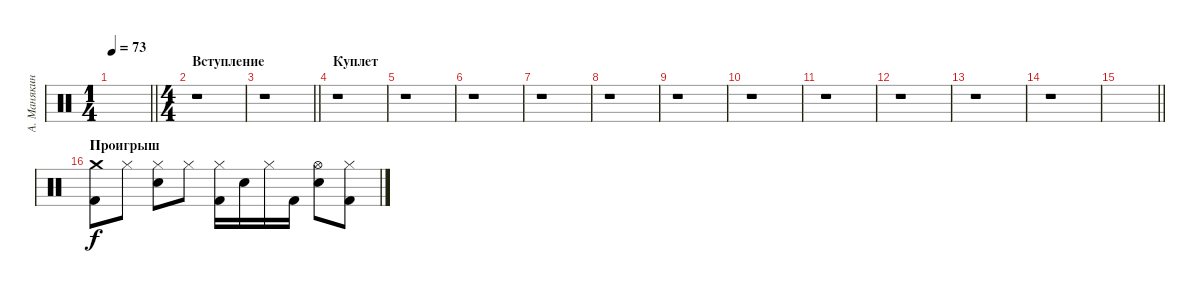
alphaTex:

\track ("А. Манякин" "А. Манякин") {instrument percussion}
\staff {score}
\articulation defaults
\ts (1 4)
\tempo 73
\clef neutral
\barLineRight lightlight
\ks c
|
\ts (4 4)
\section ("" "Вступление")
r.1 |
\barLineRight lightlight
r.1 |
\section ("" "Куплет")
r.1 |
r.1 |
r.1 |
r.1 |
r.1 |
r.1 |
r.1 |
r.1 |
r.1 |
r.1 |
r.1 |
\barLineRight lightlight
|
\section ("" "Проигрыш")
("Kick (hit) 2" "Crash medium (hit)").8 "Hi-Hat (closed)".8 ("Snare (hit) 2" "Hi-Hat (closed)").8 "Hi-Hat (closed)".8 ("Kick (hit) 2" "Hi-Hat (closed)").16 "Snare (hit) 2".16 "Hi-Hat (closed)".16 "Kick (hit) 2".16 ("Snare (hit) 2" "Hi-Hat (open)").8 ("Kick (hit) 2" "Hi-Hat (closed)").8
